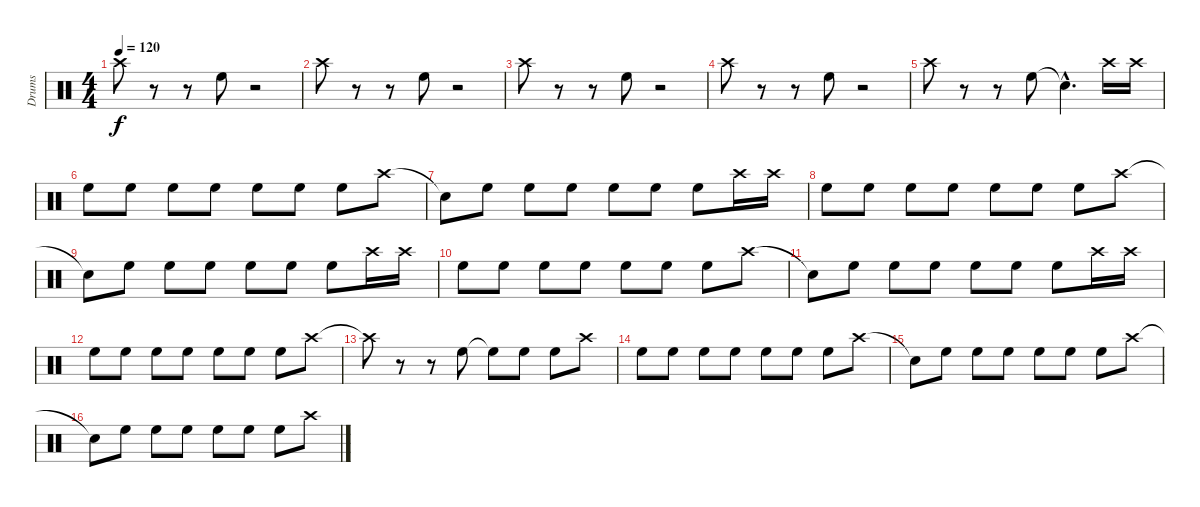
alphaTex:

\track ("Drums" "Drums") {instrument percussion}
\staff {score}
\articulation defaults
\ts (4 4)
\tempo 120
\clef neutral
\ks c "Crash high (hit)".8{dy f}
r.8 r.8 "High Floor Tom (hit)".8 r.2 |
"Crash high (hit)".8 r.8 r.8 "High Floor Tom (hit)".8 r.2 |
"Crash high (hit)".8 r.8 r.8 "High Floor Tom (hit)".8 r.2 |
"Crash high (hit)".8 r.8 r.8 "High Floor Tom (hit)".8 r.2 |
"Crash high (hit)".8 r.8 r.8 "High Floor Tom (hit)".8 "Snare (hit)"{hac t}.4{d} "Crash high (hit)".16 "Crash high (hit)".16 |
"High Floor Tom (hit)".8 "High Floor Tom (hit)".8 "High Floor Tom (hit)".8 "High Floor Tom (hit)".8 "High Floor Tom (hit)".8 "High Floor Tom (hit)".8 "High Floor Tom (hit)".8 "Crash high (hit)".8 |
"Snare (hit)"{t}.8 "High Floor Tom (hit)".8 "High Floor Tom (hit)".8 "High Floor Tom (hit)".8 "High Floor Tom (hit)".8 "High Floor Tom (hit)".8 "High Floor Tom (hit)".8 "Crash high (hit)".16 "Crash high (hit)".16 |
"High Floor Tom (hit)".8 "High Floor Tom (hit)".8 "High Floor Tom (hit)".8 "High Floor Tom (hit)".8 "High Floor Tom (hit)".8 "High Floor Tom (hit)".8 "High Floor Tom (hit)".8 "Crash high (hit)".8 |
"Snare (hit)"{t}.8 "High Floor Tom (hit)".8 "High Floor Tom (hit)".8 "High Floor Tom (hit)".8 "High Floor Tom (hit)".8 "High Floor Tom (hit)".8 "High Floor Tom (hit)".8 "Crash high (hit)".16 "Crash high (hit)".16 |
"High Floor Tom (hit)".8 "High Floor Tom (hit)".8 "High Floor Tom (hit)".8 "High Floor Tom (hit)".8 "High Floor Tom (hit)".8 "High Floor Tom (hit)".8 "High Floor Tom (hit)".8 "Crash high (hit)".8 |
"Snare (hit)"{t}.8 "High Floor Tom (hit)".8 "High Floor Tom (hit)".8 "High Floor Tom (hit)".8 "High Floor Tom (hit)".8 "High Floor Tom (hit)".8 "High Floor Tom (hit)".8 "Crash high (hit)".16 "Crash high (hit)".16 |
"High Floor Tom (hit)".8 "High Floor Tom (hit)".8 "High Floor Tom (hit)".8 "High Floor Tom (hit)".8 "High Floor Tom (hit)".8 "High Floor Tom (hit)".8 "High Floor Tom (hit)".8 "Crash high (hit)".8 |
"Crash high (hit)"{t}.8 r.8 r.8 "High Floor Tom (hit)".8 "High Floor Tom (hit)"{t}.8 "High Floor Tom (hit)".8 "High Floor Tom (hit)".8 "Crash high (hit)".8 |
"High Floor Tom (hit)".8 "High Floor Tom (hit)".8 "High Floor Tom (hit)".8 "High Floor Tom (hit)".8 "High Floor Tom (hit)".8 "High Floor Tom (hit)".8 "High Floor Tom (hit)".8 "Crash high (hit)".8 |
"Snare (hit)"{t}.8 "High Floor Tom (hit)".8 "High Floor Tom (hit)".8 "High Floor Tom (hit)".8 "High Floor Tom (hit)".8 "High Floor Tom (hit)".8 "High Floor Tom (hit)".8 "Crash high (hit)".8 |
"Snare (hit)"{t}.8 "High Floor Tom (hit)".8 "High Floor Tom (hit)".8 "High Floor Tom (hit)".8 "High Floor Tom (hit)".8 "High Floor Tom (hit)".8 "High Floor Tom (hit)".8 "Crash high (hit)".8
